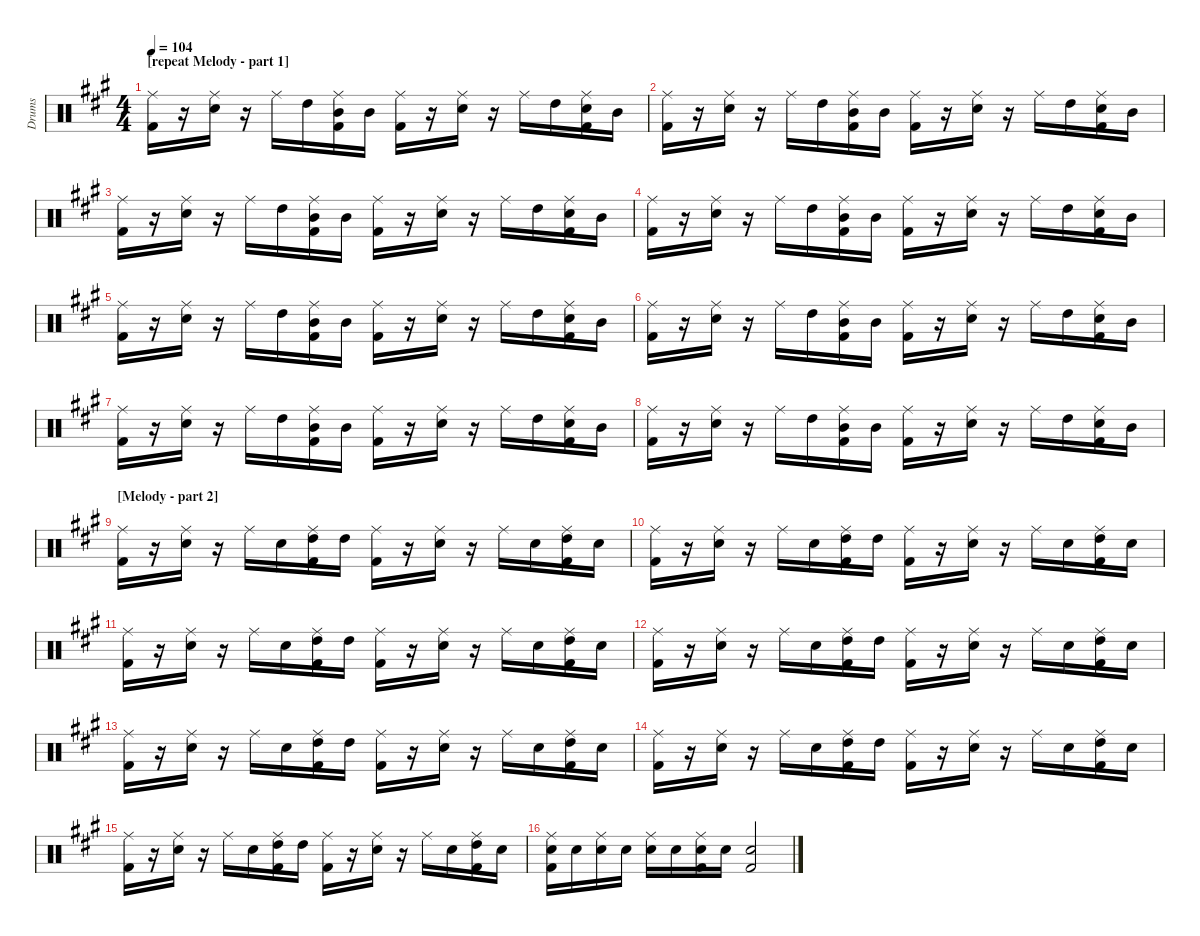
\hideDynamics
\bracketExtendMode nobrackets
\otherSystemsTrackNameOrientation horizontal
\track ("Drumkit" "Drums") {instrument percussion}
\staff {score}
\articulation defaults
\ts (4 4)
\section ("" "[repeat Melody - part 1]")
\tempo 104
\clef neutral
\ks a
("Ride (middle)"{acc forcenatural} "Kick (hit) 2"{acc forcenatural}).16{dy f beam Down} r.16{beam Down} ("Ride (middle)"{acc forcenatural} "Snare (hit) 2"{acc forcenatural}).16{beam Down} r.16{beam Down} "Ride (middle)"{acc forcenatural}.16{beam Down} "High Tom (hit)"{acc forcenatural}.16{beam Down} ("Ride (middle)"{acc forcenatural} "Mid Tom (hit)"{acc forcenatural} "Kick (hit) 2"{acc forcenatural}).16{beam Down} "Mid Tom (hit)"{acc forcenatural}.16{beam Down} ("Ride (middle)"{acc forcenatural} "Kick (hit) 2"{acc forcenatural}).16{beam Down} r.16{beam Down} ("Ride (middle)"{acc forcenatural} "Snare (hit) 2"{acc forcenatural}).16{beam Down} r.16{beam Down} "Ride (middle)"{acc forcenatural}.16{beam Down} "High Tom (hit)"{acc forcenatural}.16{beam Down} ("Ride (middle)"{acc forcenatural} "Snare (hit) 2"{acc forcenatural} "Kick (hit) 2"{acc forcenatural}).16{beam Down} "Mid Tom (hit)"{acc forcenatural}.16{beam Down} |
("Ride (middle)"{acc forcenatural} "Kick (hit) 2"{acc forcenatural}).16{beam Down} r.16{beam Down} ("Ride (middle)"{acc forcenatural} "Snare (hit) 2"{acc forcenatural}).16{beam Down} r.16{beam Down} "Ride (middle)"{acc forcenatural}.16{beam Down} "High Tom (hit)"{acc forcenatural}.16{beam Down} ("Ride (middle)"{acc forcenatural} "Mid Tom (hit)"{acc forcenatural} "Kick (hit) 2"{acc forcenatural}).16{beam Down} "Mid Tom (hit)"{acc forcenatural}.16{beam Down} ("Ride (middle)"{acc forcenatural} "Kick (hit) 2"{acc forcenatural}).16{beam Down} r.16{beam Down} ("Ride (middle)"{acc forcenatural} "Snare (hit) 2"{acc forcenatural}).16{beam Down} r.16{beam Down} "Ride (middle)"{acc forcenatural}.16{beam Down} "High Tom (hit)"{acc forcenatural}.16{beam Down} ("Ride (middle)"{acc forcenatural} "Snare (hit) 2"{acc forcenatural} "Kick (hit) 2"{acc forcenatural}).16{beam Down} "Mid Tom (hit)"{acc forcenatural}.16{beam Down} |
("Ride (middle)"{acc forcenatural} "Kick (hit) 2"{acc forcenatural}).16{beam Down} r.16{beam Down} ("Ride (middle)"{acc forcenatural} "Snare (hit) 2"{acc forcenatural}).16{beam Down} r.16{beam Down} "Ride (middle)"{acc forcenatural}.16{beam Down} "High Tom (hit)"{acc forcenatural}.16{beam Down} ("Ride (middle)"{acc forcenatural} "Mid Tom (hit)"{acc forcenatural} "Kick (hit) 2"{acc forcenatural}).16{beam Down} "Mid Tom (hit)"{acc forcenatural}.16{beam Down} ("Ride (middle)"{acc forcenatural} "Kick (hit) 2"{acc forcenatural}).16{beam Down} r.16{beam Down} ("Ride (middle)"{acc forcenatural} "Snare (hit) 2"{acc forcenatural}).16{beam Down} r.16{beam Down} "Ride (middle)"{acc forcenatural}.16{beam Down} "High Tom (hit)"{acc forcenatural}.16{beam Down} ("Ride (middle)"{acc forcenatural} "Snare (hit) 2"{acc forcenatural} "Kick (hit) 2"{acc forcenatural}).16{beam Down} "Mid Tom (hit)"{acc forcenatural}.16{beam Down} |
("Ride (middle)"{acc forcenatural} "Kick (hit) 2"{acc forcenatural}).16{beam Down} r.16{beam Down} ("Ride (middle)"{acc forcenatural} "Snare (hit) 2"{acc forcenatural}).16{beam Down} r.16{beam Down} "Ride (middle)"{acc forcenatural}.16{beam Down} "High Tom (hit)"{acc forcenatural}.16{beam Down} ("Ride (middle)"{acc forcenatural} "Mid Tom (hit)"{acc forcenatural} "Kick (hit) 2"{acc forcenatural}).16{beam Down} "Mid Tom (hit)"{acc forcenatural}.16{beam Down} ("Ride (middle)"{acc forcenatural} "Kick (hit) 2"{acc forcenatural}).16{beam Down} r.16{beam Down} ("Ride (middle)"{acc forcenatural} "Snare (hit) 2"{acc forcenatural}).16{beam Down} r.16{beam Down} "Ride (middle)"{acc forcenatural}.16{beam Down} "High Tom (hit)"{acc forcenatural}.16{beam Down} ("Ride (middle)"{acc forcenatural} "Snare (hit) 2"{acc forcenatural} "Kick (hit) 2"{acc forcenatural}).16{beam Down} "Mid Tom (hit)"{acc forcenatural}.16{beam Down} |
("Ride (middle)"{acc forcenatural} "Kick (hit) 2"{acc forcenatural}).16{beam Down} r.16{beam Down} ("Ride (middle)"{acc forcenatural} "Snare (hit) 2"{acc forcenatural}).16{beam Down} r.16{beam Down} "Ride (middle)"{acc forcenatural}.16{beam Down} "High Tom (hit)"{acc forcenatural}.16{beam Down} ("Ride (middle)"{acc forcenatural} "Mid Tom (hit)"{acc forcenatural} "Kick (hit) 2"{acc forcenatural}).16{beam Down} "Mid Tom (hit)"{acc forcenatural}.16{beam Down} ("Ride (middle)"{acc forcenatural} "Kick (hit) 2"{acc forcenatural}).16{beam Down} r.16{beam Down} ("Ride (middle)"{acc forcenatural} "Snare (hit) 2"{acc forcenatural}).16{beam Down} r.16{beam Down} "Ride (middle)"{acc forcenatural}.16{beam Down} "High Tom (hit)"{acc forcenatural}.16{beam Down} ("Ride (middle)"{acc forcenatural} "Snare (hit) 2"{acc forcenatural} "Kick (hit) 2"{acc forcenatural}).16{beam Down} "Mid Tom (hit)"{acc forcenatural}.16{beam Down} |
("Ride (middle)"{acc forcenatural} "Kick (hit) 2"{acc forcenatural}).16{beam Down} r.16{beam Down} ("Ride (middle)"{acc forcenatural} "Snare (hit) 2"{acc forcenatural}).16{beam Down} r.16{beam Down} "Ride (middle)"{acc forcenatural}.16{beam Down} "High Tom (hit)"{acc forcenatural}.16{beam Down} ("Ride (middle)"{acc forcenatural} "Mid Tom (hit)"{acc forcenatural} "Kick (hit) 2"{acc forcenatural}).16{beam Down} "Mid Tom (hit)"{acc forcenatural}.16{beam Down} ("Ride (middle)"{acc forcenatural} "Kick (hit) 2"{acc forcenatural}).16{beam Down} r.16{beam Down} ("Ride (middle)"{acc forcenatural} "Snare (hit) 2"{acc forcenatural}).16{beam Down} r.16{beam Down} "Ride (middle)"{acc forcenatural}.16{beam Down} "High Tom (hit)"{acc forcenatural}.16{beam Down} ("Ride (middle)"{acc forcenatural} "Snare (hit) 2"{acc forcenatural} "Kick (hit) 2"{acc forcenatural}).16{beam Down} "Mid Tom (hit)"{acc forcenatural}.16{beam Down} |
("Ride (middle)"{acc forcenatural} "Kick (hit) 2"{acc forcenatural}).16{beam Down} r.16{beam Down} ("Ride (middle)"{acc forcenatural} "Snare (hit) 2"{acc forcenatural}).16{beam Down} r.16{beam Down} "Ride (middle)"{acc forcenatural}.16{beam Down} "High Tom (hit)"{acc forcenatural}.16{beam Down} ("Ride (middle)"{acc forcenatural} "Mid Tom (hit)"{acc forcenatural} "Kick (hit) 2"{acc forcenatural}).16{beam Down} "Mid Tom (hit)"{acc forcenatural}.16{beam Down} ("Ride (middle)"{acc forcenatural} "Kick (hit) 2"{acc forcenatural}).16{beam Down} r.16{beam Down} ("Ride (middle)"{acc forcenatural} "Snare (hit) 2"{acc forcenatural}).16{beam Down} r.16{beam Down} "Ride (middle)"{acc forcenatural}.16{beam Down} "High Tom (hit)"{acc forcenatural}.16{beam Down} ("Ride (middle)"{acc forcenatural} "Snare (hit) 2"{acc forcenatural} "Kick (hit) 2"{acc forcenatural}).16{beam Down} "Mid Tom (hit)"{acc forcenatural}.16{beam Down} |
("Ride (middle)"{acc forcenatural} "Kick (hit) 2"{acc forcenatural}).16{beam Down} r.16{beam Down} ("Ride (middle)"{acc forcenatural} "Snare (hit) 2"{acc forcenatural}).16{beam Down} r.16{beam Down} "Ride (middle)"{acc forcenatural}.16{beam Down} "High Tom (hit)"{acc forcenatural}.16{beam Down} ("Ride (middle)"{acc forcenatural} "Mid Tom (hit)"{acc forcenatural} "Kick (hit) 2"{acc forcenatural}).16{beam Down} "Mid Tom (hit)"{acc forcenatural}.16{beam Down} ("Ride (middle)"{acc forcenatural} "Kick (hit) 2"{acc forcenatural}).16{beam Down} r.16{beam Down} ("Ride (middle)"{acc forcenatural} "Snare (hit) 2"{acc forcenatural}).16{beam Down} r.16{beam Down} "Ride (middle)"{acc forcenatural}.16{beam Down} "High Tom (hit)"{acc forcenatural}.16{beam Down} ("Ride (middle)"{acc forcenatural} "Snare (hit) 2"{acc forcenatural} "Kick (hit) 2"{acc forcenatural}).16{beam Down} "Mid Tom (hit)"{acc forcenatural}.16{beam Down} |
\section ("" "[Melody - part 2]")
("Ride (middle)"{acc forcenatural} "Kick (hit) 2"{acc forcenatural}).16{beam Down} r.16{beam Down} ("Ride (middle)"{acc forcenatural} "Snare (hit) 2"{acc forcenatural}).16{beam Down} r.16{beam Down} "Ride (middle)"{acc forcenatural}.16{beam Down} "Snare (hit) 2"{acc forcenatural}.16{beam Down} ("Ride (middle)"{acc forcenatural} "High Tom (hit)"{acc forcenatural} "Kick (hit) 2"{acc forcenatural}).16{beam Down} "High Tom (hit)"{acc forcenatural}.16{beam Down} ("Ride (middle)"{acc forcenatural} "Kick (hit) 2"{acc forcenatural}).16{beam Down} r.16{beam Down} ("Ride (middle)"{acc forcenatural} "Snare (hit) 2"{acc forcenatural}).16{beam Down} r.16{beam Down} "Ride (middle)"{acc forcenatural}.16{beam Down} "Snare (hit) 2"{acc forcenatural}.16{beam Down} ("Ride (middle)"{acc forcenatural} "High Tom (hit)"{acc forcenatural} "Kick (hit) 2"{acc forcenatural}).16{beam Down} "Snare (hit) 2"{acc forcenatural}.16{beam Down} |
("Ride (middle)"{acc forcenatural} "Kick (hit) 2"{acc forcenatural}).16{beam Down} r.16{beam Down} ("Ride (middle)"{acc forcenatural} "Snare (hit) 2"{acc forcenatural}).16{beam Down} r.16{beam Down} "Ride (middle)"{acc forcenatural}.16{beam Down} "Snare (hit) 2"{acc forcenatural}.16{beam Down} ("Ride (middle)"{acc forcenatural} "High Tom (hit)"{acc forcenatural} "Kick (hit) 2"{acc forcenatural}).16{beam Down} "High Tom (hit)"{acc forcenatural}.16{beam Down} ("Ride (middle)"{acc forcenatural} "Kick (hit) 2"{acc forcenatural}).16{beam Down} r.16{beam Down} ("Ride (middle)"{acc forcenatural} "Snare (hit) 2"{acc forcenatural}).16{beam Down} r.16{beam Down} "Ride (middle)"{acc forcenatural}.16{beam Down} "Snare (hit) 2"{acc forcenatural}.16{beam Down} ("Ride (middle)"{acc forcenatural} "High Tom (hit)"{acc forcenatural} "Kick (hit) 2"{acc forcenatural}).16{beam Down} "Snare (hit) 2"{acc forcenatural}.16{beam Down} |
("Ride (middle)"{acc forcenatural} "Kick (hit) 2"{acc forcenatural}).16{beam Down} r.16{beam Down} ("Ride (middle)"{acc forcenatural} "Snare (hit) 2"{acc forcenatural}).16{beam Down} r.16{beam Down} "Ride (middle)"{acc forcenatural}.16{beam Down} "Snare (hit) 2"{acc forcenatural}.16{beam Down} ("Ride (middle)"{acc forcenatural} "High Tom (hit)"{acc forcenatural} "Kick (hit) 2"{acc forcenatural}).16{beam Down} "High Tom (hit)"{acc forcenatural}.16{beam Down} ("Ride (middle)"{acc forcenatural} "Kick (hit) 2"{acc forcenatural}).16{beam Down} r.16{beam Down} ("Ride (middle)"{acc forcenatural} "Snare (hit) 2"{acc forcenatural}).16{beam Down} r.16{beam Down} "Ride (middle)"{acc forcenatural}.16{beam Down} "Snare (hit) 2"{acc forcenatural}.16{beam Down} ("Ride (middle)"{acc forcenatural} "High Tom (hit)"{acc forcenatural} "Kick (hit) 2"{acc forcenatural}).16{beam Down} "Snare (hit) 2"{acc forcenatural}.16{beam Down} |
("Ride (middle)"{acc forcenatural} "Kick (hit) 2"{acc forcenatural}).16{beam Down} r.16{beam Down} ("Ride (middle)"{acc forcenatural} "Snare (hit) 2"{acc forcenatural}).16{beam Down} r.16{beam Down} "Ride (middle)"{acc forcenatural}.16{beam Down} "Snare (hit) 2"{acc forcenatural}.16{beam Down} ("Ride (middle)"{acc forcenatural} "High Tom (hit)"{acc forcenatural} "Kick (hit) 2"{acc forcenatural}).16{beam Down} "High Tom (hit)"{acc forcenatural}.16{beam Down} ("Ride (middle)"{acc forcenatural} "Kick (hit) 2"{acc forcenatural}).16{beam Down} r.16{beam Down} ("Ride (middle)"{acc forcenatural} "Snare (hit) 2"{acc forcenatural}).16{beam Down} r.16{beam Down} "Ride (middle)"{acc forcenatural}.16{beam Down} "Snare (hit) 2"{acc forcenatural}.16{beam Down} ("Ride (middle)"{acc forcenatural} "High Tom (hit)"{acc forcenatural} "Kick (hit) 2"{acc forcenatural}).16{beam Down} "Snare (hit) 2"{acc forcenatural}.16{beam Down} |
("Ride (middle)"{acc forcenatural} "Kick (hit) 2"{acc forcenatural}).16{beam Down} r.16{beam Down} ("Ride (middle)"{acc forcenatural} "Snare (hit) 2"{acc forcenatural}).16{beam Down} r.16{beam Down} "Ride (middle)"{acc forcenatural}.16{beam Down} "Snare (hit) 2"{acc forcenatural}.16{beam Down} ("Ride (middle)"{acc forcenatural} "High Tom (hit)"{acc forcenatural} "Kick (hit) 2"{acc forcenatural}).16{beam Down} "High Tom (hit)"{acc forcenatural}.16{beam Down} ("Ride (middle)"{acc forcenatural} "Kick (hit) 2"{acc forcenatural}).16{beam Down} r.16{beam Down} ("Ride (middle)"{acc forcenatural} "Snare (hit) 2"{acc forcenatural}).16{beam Down} r.16{beam Down} "Ride (middle)"{acc forcenatural}.16{beam Down} "Snare (hit) 2"{acc forcenatural}.16{beam Down} ("Ride (middle)"{acc forcenatural} "High Tom (hit)"{acc forcenatural} "Kick (hit) 2"{acc forcenatural}).16{beam Down} "Snare (hit) 2"{acc forcenatural}.16{beam Down} |
("Ride (middle)"{acc forcenatural} "Kick (hit) 2"{acc forcenatural}).16{beam Down} r.16{beam Down} ("Ride (middle)"{acc forcenatural} "Snare (hit) 2"{acc forcenatural}).16{beam Down} r.16{beam Down} "Ride (middle)"{acc forcenatural}.16{beam Down} "Snare (hit) 2"{acc forcenatural}.16{beam Down} ("Ride (middle)"{acc forcenatural} "High Tom (hit)"{acc forcenatural} "Kick (hit) 2"{acc forcenatural}).16{beam Down} "High Tom (hit)"{acc forcenatural}.16{beam Down} ("Ride (middle)"{acc forcenatural} "Kick (hit) 2"{acc forcenatural}).16{beam Down} r.16{beam Down} ("Ride (middle)"{acc forcenatural} "Snare (hit) 2"{acc forcenatural}).16{beam Down} r.16{beam Down} "Ride (middle)"{acc forcenatural}.16{beam Down} "Snare (hit) 2"{acc forcenatural}.16{beam Down} ("Ride (middle)"{acc forcenatural} "High Tom (hit)"{acc forcenatural} "Kick (hit) 2"{acc forcenatural}).16{beam Down} "Snare (hit) 2"{acc forcenatural}.16{beam Down} |
("Ride (middle)"{acc forcenatural} "Kick (hit) 2"{acc forcenatural}).16{beam Down} r.16{beam Down} ("Ride (middle)"{acc forcenatural} "Snare (hit) 2"{acc forcenatural}).16{beam Down} r.16{beam Down} "Ride (middle)"{acc forcenatural}.16{beam Down} "Snare (hit) 2"{acc forcenatural}.16{beam Down} ("Ride (middle)"{acc forcenatural} "High Tom (hit)"{acc forcenatural} "Kick (hit) 2"{acc forcenatural}).16{beam Down} "High Tom (hit)"{acc forcenatural}.16{beam Down} ("Ride (middle)"{acc forcenatural} "Kick (hit) 2"{acc forcenatural}).16{beam Down} r.16{beam Down} ("Ride (middle)"{acc forcenatural} "Snare (hit) 2"{acc forcenatural}).16{beam Down} r.16{beam Down} "Ride (middle)"{acc forcenatural}.16{beam Down} "Snare (hit) 2"{acc forcenatural}.16{beam Down} ("Ride (middle)"{acc forcenatural} "High Tom (hit)"{acc forcenatural} "Kick (hit) 2"{acc forcenatural}).16{beam Down} "Snare (hit) 2"{acc forcenatural}.16{beam Down} |
("Ride (middle)"{acc forcenatural} "Snare (hit) 2"{acc forcenatural} "Kick (hit) 2"{acc forcenatural}).16{beam Down} "Snare (hit) 2"{acc forcenatural}.16{beam Down} ("Ride (middle)"{acc forcenatural} "Snare (hit) 2"{acc forcenatural}).16{beam Down} "Snare (hit) 2"{acc forcenatural}.16{beam Down} ("Ride (middle)"{acc forcenatural} "Snare (hit) 2"{acc forcenatural}).16{beam Down} "Snare (hit) 2"{acc forcenatural}.16{beam Down} ("Ride (middle)"{acc forcenatural} "Snare (hit) 2"{acc forcenatural} "Kick (hit) 2"{acc forcenatural}).16{beam Down} "Snare (hit) 2"{acc forcenatural}.16{beam Down} ("Snare (hit) 2"{acc forcenatural} "Kick (hit) 2"{acc forcenatural}).2{beam Up}
